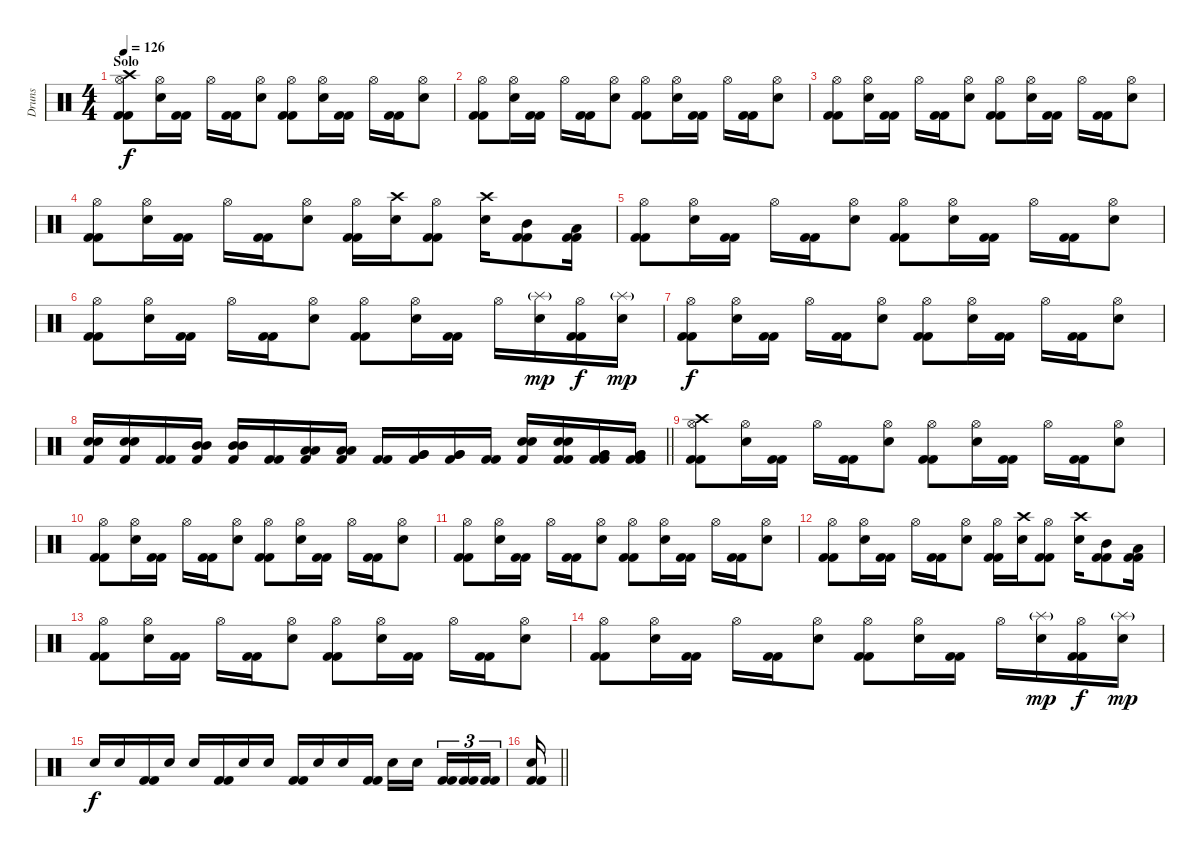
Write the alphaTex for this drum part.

\track ("Druns" "Druns") {instrument percussion}
\staff {score}
\articulation defaults
\ts (4 4)
\section ("" "Solo")
\tempo 126
\clef neutral
\ks c
("Crash high (hit)" "Hi-Hat (open)" "Kick (hit) 2" "Kick (hit) 2").8{dy f} ("Hi-Hat (open)" "Electric Snare (hit)").16 ("Kick (hit) 2" "Kick (hit) 2").16 "Hi-Hat (open)".16 ("Kick (hit) 2" "Kick (hit) 2").16 ("Hi-Hat (open)" "Electric Snare (hit)").8 ("Hi-Hat (open)" "Kick (hit) 2" "Kick (hit) 2").8 ("Hi-Hat (open)" "Electric Snare (hit)").16 ("Kick (hit) 2" "Kick (hit) 2").16 "Hi-Hat (open)".16 ("Kick (hit) 2" "Kick (hit) 2").16 ("Hi-Hat (open)" "Electric Snare (hit)").8 |
("Hi-Hat (open)" "Kick (hit) 2" "Kick (hit) 2").8 ("Hi-Hat (open)" "Electric Snare (hit)").16 ("Kick (hit) 2" "Kick (hit) 2").16 "Hi-Hat (open)".16 ("Kick (hit) 2" "Kick (hit) 2").16 ("Hi-Hat (open)" "Electric Snare (hit)").8 ("Hi-Hat (open)" "Kick (hit) 2" "Kick (hit) 2").8 ("Hi-Hat (open)" "Electric Snare (hit)").16 ("Kick (hit) 2" "Kick (hit) 2").16 "Hi-Hat (open)".16 ("Kick (hit) 2" "Kick (hit) 2").16 ("Hi-Hat (open)" "Electric Snare (hit)").8 |
("Hi-Hat (open)" "Kick (hit) 2" "Kick (hit) 2").8 ("Hi-Hat (open)" "Electric Snare (hit)").16 ("Kick (hit) 2" "Kick (hit) 2").16 "Hi-Hat (open)".16 ("Kick (hit) 2" "Kick (hit) 2").16 ("Hi-Hat (open)" "Electric Snare (hit)").8 ("Hi-Hat (open)" "Kick (hit) 2" "Kick (hit) 2").8 ("Hi-Hat (open)" "Electric Snare (hit)").16 ("Kick (hit) 2" "Kick (hit) 2").16 "Hi-Hat (open)".16 ("Kick (hit) 2" "Kick (hit) 2").16 ("Hi-Hat (open)" "Electric Snare (hit)").8 |
("Hi-Hat (open)" "Kick (hit) 2" "Kick (hit) 2").8 ("Hi-Hat (open)" "Electric Snare (hit)").16 ("Kick (hit) 2" "Kick (hit) 2").16 "Hi-Hat (open)".16 ("Kick (hit) 2" "Kick (hit) 2").16 ("Hi-Hat (open)" "Electric Snare (hit)").8 ("Hi-Hat (open)" "Kick (hit) 2" "Kick (hit) 2").16 ("Crash high (hit)" "Electric Snare (hit)").16 ("Hi-Hat (open)" "Kick (hit) 2" "Kick (hit) 2").8 ("Crash high (hit)" "Electric Snare (hit)").16 ("Mid Tom (hit)" "Kick (hit) 2" "Kick (hit) 2").8 ("Low Tom (hit)" "Kick (hit) 2" "Kick (hit) 2").16 |
("Hi-Hat (open)" "Kick (hit) 2" "Kick (hit) 2").8 ("Hi-Hat (open)" "Electric Snare (hit)").16 ("Kick (hit) 2" "Kick (hit) 2").16 "Hi-Hat (open)".16 ("Kick (hit) 2" "Kick (hit) 2").16 ("Hi-Hat (open)" "Electric Snare (hit)").8 ("Hi-Hat (open)" "Kick (hit) 2" "Kick (hit) 2").8 ("Hi-Hat (open)" "Electric Snare (hit)").16 ("Kick (hit) 2" "Kick (hit) 2").16 "Hi-Hat (open)".16 ("Kick (hit) 2" "Kick (hit) 2").16 ("Hi-Hat (open)" "Electric Snare (hit)").8 |
("Hi-Hat (open)" "Kick (hit) 2" "Kick (hit) 2").8 ("Hi-Hat (open)" "Electric Snare (hit)").16 ("Kick (hit) 2" "Kick (hit) 2").16 "Hi-Hat (open)".16 ("Kick (hit) 2" "Kick (hit) 2").16 ("Hi-Hat (open)" "Electric Snare (hit)").8 ("Hi-Hat (open)" "Kick (hit) 2" "Kick (hit) 2").8 ("Hi-Hat (open)" "Electric Snare (hit)").16 ("Kick (hit) 2" "Kick (hit) 2").16 "Hi-Hat (open)".16 ("Splash (hit)"{g} "Electric Snare (hit)").16{dy mp} ("Hi-Hat (open)" "Kick (hit) 2" "Kick (hit) 2").16{dy f} ("Splash (hit)"{g} "Electric Snare (hit)").16{dy mp} |
("Hi-Hat (open)" "Kick (hit) 2" "Kick (hit) 2").8{dy f} ("Hi-Hat (open)" "Electric Snare (hit)").16 ("Kick (hit) 2" "Kick (hit) 2").16 "Hi-Hat (open)".16 ("Kick (hit) 2" "Kick (hit) 2").16 ("Hi-Hat (open)" "Electric Snare (hit)").8 ("Hi-Hat (open)" "Kick (hit) 2" "Kick (hit) 2").8 ("Hi-Hat (open)" "Electric Snare (hit)").16 ("Kick (hit) 2" "Kick (hit) 2").16 "Hi-Hat (open)".16 ("Kick (hit) 2" "Kick (hit) 2").16 ("Hi-Hat (open)" "Electric Snare (hit)").8 |
\barLineRight lightlight
("Electric Snare (hit)" "Electric Snare (hit)" "Kick (hit) 2").16 ("Electric Snare (hit)" "Electric Snare (hit)" "Kick (hit) 2").16 ("Kick (hit) 2" "Kick (hit) 2").16 ("Mid Tom (hit)" "Mid Tom (hit)" "Kick (hit) 2").16 ("Mid Tom (hit)" "Mid Tom (hit)" "Kick (hit) 2").16 ("Kick (hit) 2" "Kick (hit) 2").16 ("Low Tom (hit)" "Low Tom (hit)" "Kick (hit) 2").16 ("Low Tom (hit)" "Low Tom (hit)" "Kick (hit) 2").16 ("Kick (hit) 2" "Kick (hit) 2").16 ("Very Low Tom (hit)" "Very Low Tom (hit)" "Kick (hit) 2").16 ("Very Low Tom (hit)" "Very Low Tom (hit)" "Kick (hit) 2").16 ("Kick (hit) 2" "Kick (hit) 2").16 ("Electric Snare (hit)" "Electric Snare (hit)" "Kick (hit) 2").16 ("Electric Snare (hit)" "Electric Snare (hit)" "Kick (hit) 2" "Kick (hit) 2").16 ("Very Low Tom (hit)" "Very Low Tom (hit)" "Kick (hit) 2" "Kick (hit) 2").16 ("Very Low Tom (hit)" "Very Low Tom (hit)" "Kick (hit) 2" "Kick (hit) 2").16 |
("Crash high (hit)" "Hi-Hat (open)" "Kick (hit) 2" "Kick (hit) 2").8 ("Hi-Hat (open)" "Electric Snare (hit)").16 ("Kick (hit) 2" "Kick (hit) 2").16 "Hi-Hat (open)".16 ("Kick (hit) 2" "Kick (hit) 2").16 ("Hi-Hat (open)" "Electric Snare (hit)").8 ("Hi-Hat (open)" "Kick (hit) 2" "Kick (hit) 2").8 ("Hi-Hat (open)" "Electric Snare (hit)").16 ("Kick (hit) 2" "Kick (hit) 2").16 "Hi-Hat (open)".16 ("Kick (hit) 2" "Kick (hit) 2").16 ("Hi-Hat (open)" "Electric Snare (hit)").8 |
("Hi-Hat (open)" "Kick (hit) 2" "Kick (hit) 2").8 ("Hi-Hat (open)" "Electric Snare (hit)").16 ("Kick (hit) 2" "Kick (hit) 2").16 "Hi-Hat (open)".16 ("Kick (hit) 2" "Kick (hit) 2").16 ("Hi-Hat (open)" "Electric Snare (hit)").8 ("Hi-Hat (open)" "Kick (hit) 2" "Kick (hit) 2").8 ("Hi-Hat (open)" "Electric Snare (hit)").16 ("Kick (hit) 2" "Kick (hit) 2").16 "Hi-Hat (open)".16 ("Kick (hit) 2" "Kick (hit) 2").16 ("Hi-Hat (open)" "Electric Snare (hit)").8 |
("Hi-Hat (open)" "Kick (hit) 2" "Kick (hit) 2").8 ("Hi-Hat (open)" "Electric Snare (hit)").16 ("Kick (hit) 2" "Kick (hit) 2").16 "Hi-Hat (open)".16 ("Kick (hit) 2" "Kick (hit) 2").16 ("Hi-Hat (open)" "Electric Snare (hit)").8 ("Hi-Hat (open)" "Kick (hit) 2" "Kick (hit) 2").8 ("Hi-Hat (open)" "Electric Snare (hit)").16 ("Kick (hit) 2" "Kick (hit) 2").16 "Hi-Hat (open)".16 ("Kick (hit) 2" "Kick (hit) 2").16 ("Hi-Hat (open)" "Electric Snare (hit)").8 |
("Hi-Hat (open)" "Kick (hit) 2" "Kick (hit) 2").8 ("Hi-Hat (open)" "Electric Snare (hit)").16 ("Kick (hit) 2" "Kick (hit) 2").16 "Hi-Hat (open)".16 ("Kick (hit) 2" "Kick (hit) 2").16 ("Hi-Hat (open)" "Electric Snare (hit)").8 ("Hi-Hat (open)" "Kick (hit) 2" "Kick (hit) 2").16 ("Crash high (hit)" "Electric Snare (hit)").16 ("Hi-Hat (open)" "Kick (hit) 2" "Kick (hit) 2").8 ("Crash high (hit)" "Electric Snare (hit)").16 ("Mid Tom (hit)" "Kick (hit) 2" "Kick (hit) 2").8 ("Low Tom (hit)" "Kick (hit) 2" "Kick (hit) 2").16 |
("Hi-Hat (open)" "Kick (hit) 2" "Kick (hit) 2").8 ("Hi-Hat (open)" "Electric Snare (hit)").16 ("Kick (hit) 2" "Kick (hit) 2").16 "Hi-Hat (open)".16 ("Kick (hit) 2" "Kick (hit) 2").16 ("Hi-Hat (open)" "Electric Snare (hit)").8 ("Hi-Hat (open)" "Kick (hit) 2" "Kick (hit) 2").8 ("Hi-Hat (open)" "Electric Snare (hit)").16 ("Kick (hit) 2" "Kick (hit) 2").16 "Hi-Hat (open)".16 ("Kick (hit) 2" "Kick (hit) 2").16 ("Hi-Hat (open)" "Electric Snare (hit)").8 |
("Hi-Hat (open)" "Kick (hit) 2" "Kick (hit) 2").8 ("Hi-Hat (open)" "Electric Snare (hit)").16 ("Kick (hit) 2" "Kick (hit) 2").16 "Hi-Hat (open)".16 ("Kick (hit) 2" "Kick (hit) 2").16 ("Hi-Hat (open)" "Electric Snare (hit)").8 ("Hi-Hat (open)" "Kick (hit) 2" "Kick (hit) 2").8 ("Hi-Hat (open)" "Electric Snare (hit)").16 ("Kick (hit) 2" "Kick (hit) 2").16 "Hi-Hat (open)".16 ("Splash (hit)"{g} "Electric Snare (hit)").16{dy mp} ("Hi-Hat (open)" "Kick (hit) 2" "Kick (hit) 2").16{dy f} ("Splash (hit)"{g} "Electric Snare (hit)").16{dy mp} |
"Electric Snare (hit)".16{dy f} "Electric Snare (hit)".16 ("Kick (hit) 2" "Kick (hit) 2").16 "Electric Snare (hit)".16 "Electric Snare (hit)".16 ("Kick (hit) 2" "Kick (hit) 2").16 "Electric Snare (hit)".16 "Electric Snare (hit)".16 ("Kick (hit) 2" "Kick (hit) 2").16 "Electric Snare (hit)".16 "Electric Snare (hit)".16 ("Kick (hit) 2" "Kick (hit) 2").16 "Electric Snare (hit)".16 "Electric Snare (hit)".16{beam splitsecondary} ("Kick (hit) 2" "Kick (hit) 2").16{tu (3 2)} ("Kick (hit) 2" "Kick (hit) 2").16{tu (3 2)} ("Kick (hit) 2" "Kick (hit) 2").16{tu (3 2)} |
\barLineRight lightlight
("Electric Snare (hit)" "Kick (hit) 2" "Kick (hit) 2").16
